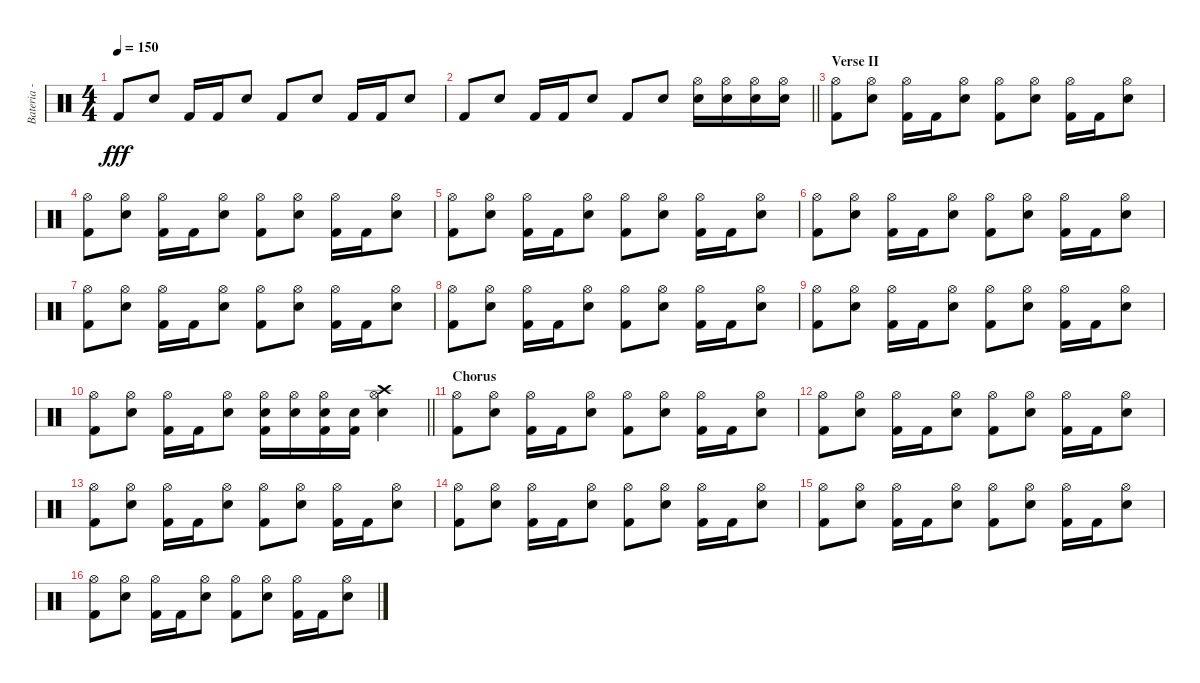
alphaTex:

\track ("Bateria - Larzon" "Bateria - ") {instrument percussion}
\staff {score}
\articulation defaults
\ts (4 4)
\tempo 150
\clef neutral
\ks c "Kick (hit) 2".8{dy fff} "Snare (hit) 2".8 "Kick (hit) 2".16 "Kick (hit) 2".16 "Snare (hit) 2".8 "Kick (hit) 2".8 "Snare (hit) 2".8 "Kick (hit) 2".16 "Kick (hit) 2".16 "Snare (hit) 2".8
|
\barLineRight lightlight "Kick (hit) 2".8 "Snare (hit) 2".8 "Kick (hit) 2".16 "Kick (hit) 2".16 "Snare (hit) 2".8 "Kick (hit) 2".8 "Snare (hit) 2".8
("Hi-Hat (open)" "Snare (hit) 2").16 ("Hi-Hat (open)" "Snare (hit) 2").16 ("Hi-Hat (open)" "Snare (hit) 2").16 ("Hi-Hat (open)" "Snare (hit) 2").16 |
\section ("" "Verse II")
("Kick (hit) 2" "Hi-Hat (open)").8 ("Hi-Hat (open)" "Snare (hit) 2").8 ("Kick (hit) 2" "Hi-Hat (open)").16 "Kick (hit) 2".16 ("Hi-Hat (open)" "Snare (hit) 2").8 ("Kick (hit) 2" "Hi-Hat (open)").8 ("Hi-Hat (open)" "Snare (hit) 2").8 ("Kick (hit) 2" "Hi-Hat (open)").16 "Kick (hit) 2".16 ("Hi-Hat (open)" "Snare (hit) 2").8 |
("Kick (hit) 2" "Hi-Hat (open)").8 ("Hi-Hat (open)" "Snare (hit) 2").8 ("Kick (hit) 2" "Hi-Hat (open)").16 "Kick (hit) 2".16 ("Hi-Hat (open)" "Snare (hit) 2").8 ("Kick (hit) 2" "Hi-Hat (open)").8 ("Hi-Hat (open)" "Snare (hit) 2").8 ("Kick (hit) 2" "Hi-Hat (open)").16 "Kick (hit) 2".16 ("Hi-Hat (open)" "Snare (hit) 2").8 |
("Kick (hit) 2" "Hi-Hat (open)").8 ("Hi-Hat (open)" "Snare (hit) 2").8 ("Kick (hit) 2" "Hi-Hat (open)").16 "Kick (hit) 2".16 ("Hi-Hat (open)" "Snare (hit) 2").8 ("Kick (hit) 2" "Hi-Hat (open)").8 ("Hi-Hat (open)" "Snare (hit) 2").8 ("Kick (hit) 2" "Hi-Hat (open)").16 "Kick (hit) 2".16 ("Hi-Hat (open)" "Snare (hit) 2").8 |
("Kick (hit) 2" "Hi-Hat (open)").8 ("Hi-Hat (open)" "Snare (hit) 2").8 ("Kick (hit) 2" "Hi-Hat (open)").16 "Kick (hit) 2".16 ("Hi-Hat (open)" "Snare (hit) 2").8 ("Kick (hit) 2" "Hi-Hat (open)").8 ("Hi-Hat (open)" "Snare (hit) 2").8 ("Kick (hit) 2" "Hi-Hat (open)").16 "Kick (hit) 2".16 ("Hi-Hat (open)" "Snare (hit) 2").8 |
("Kick (hit) 2" "Hi-Hat (open)").8 ("Hi-Hat (open)" "Snare (hit) 2").8 ("Kick (hit) 2" "Hi-Hat (open)").16 "Kick (hit) 2".16 ("Hi-Hat (open)" "Snare (hit) 2").8 ("Kick (hit) 2" "Hi-Hat (open)").8 ("Hi-Hat (open)" "Snare (hit) 2").8 ("Kick (hit) 2" "Hi-Hat (open)").16 "Kick (hit) 2".16 ("Hi-Hat (open)" "Snare (hit) 2").8 |
("Kick (hit) 2" "Hi-Hat (open)").8 ("Hi-Hat (open)" "Snare (hit) 2").8 ("Kick (hit) 2" "Hi-Hat (open)").16 "Kick (hit) 2".16 ("Hi-Hat (open)" "Snare (hit) 2").8 ("Kick (hit) 2" "Hi-Hat (open)").8 ("Hi-Hat (open)" "Snare (hit) 2").8 ("Kick (hit) 2" "Hi-Hat (open)").16 "Kick (hit) 2".16 ("Hi-Hat (open)" "Snare (hit) 2").8 |
("Kick (hit) 2" "Hi-Hat (open)").8 ("Hi-Hat (open)" "Snare (hit) 2").8 ("Kick (hit) 2" "Hi-Hat (open)").16 "Kick (hit) 2".16 ("Hi-Hat (open)" "Snare (hit) 2").8 ("Kick (hit) 2" "Hi-Hat (open)").8 ("Hi-Hat (open)" "Snare (hit) 2").8 ("Kick (hit) 2" "Hi-Hat (open)").16 "Kick (hit) 2".16 ("Hi-Hat (open)" "Snare (hit) 2").8 |
\barLineRight lightlight
("Kick (hit) 2" "Hi-Hat (open)").8 ("Hi-Hat (open)" "Snare (hit) 2").8 ("Kick (hit) 2" "Hi-Hat (open)").16 "Kick (hit) 2".16 ("Hi-Hat (open)" "Snare (hit) 2").8 ("Kick (hit) 2" "Hi-Hat (open)" "Snare (hit) 2").16 ("Hi-Hat (open)" "Snare (hit) 2").16 ("Kick (hit) 2" "Hi-Hat (open)" "Snare (hit) 2").16 ("Kick (hit) 2" "Snare (hit) 2").16 ("Crash high (hit)" "Hi-Hat (open)" "Snare (hit) 2").4 |
\section ("" "Chorus")
("Kick (hit) 2" "Hi-Hat (open)").8 ("Hi-Hat (open)" "Snare (hit) 2").8 ("Kick (hit) 2" "Hi-Hat (open)").16 "Kick (hit) 2".16 ("Hi-Hat (open)" "Snare (hit) 2").8 ("Kick (hit) 2" "Hi-Hat (open)").8 ("Hi-Hat (open)" "Snare (hit) 2").8 ("Kick (hit) 2" "Hi-Hat (open)").16 "Kick (hit) 2".16 ("Hi-Hat (open)" "Snare (hit) 2").8 |
("Kick (hit) 2" "Hi-Hat (open)").8 ("Hi-Hat (open)" "Snare (hit) 2").8 ("Kick (hit) 2" "Hi-Hat (open)").16 "Kick (hit) 2".16 ("Hi-Hat (open)" "Snare (hit) 2").8 ("Kick (hit) 2" "Hi-Hat (open)").8 ("Hi-Hat (open)" "Snare (hit) 2").8 ("Kick (hit) 2" "Hi-Hat (open)").16 "Kick (hit) 2".16 ("Hi-Hat (open)" "Snare (hit) 2").8 |
("Kick (hit) 2" "Hi-Hat (open)").8 ("Hi-Hat (open)" "Snare (hit) 2").8 ("Kick (hit) 2" "Hi-Hat (open)").16 "Kick (hit) 2".16 ("Hi-Hat (open)" "Snare (hit) 2").8 ("Kick (hit) 2" "Hi-Hat (open)").8 ("Hi-Hat (open)" "Snare (hit) 2").8 ("Kick (hit) 2" "Hi-Hat (open)").16 "Kick (hit) 2".16 ("Hi-Hat (open)" "Snare (hit) 2").8 |
("Kick (hit) 2" "Hi-Hat (open)").8 ("Hi-Hat (open)" "Snare (hit) 2").8 ("Kick (hit) 2" "Hi-Hat (open)").16 "Kick (hit) 2".16 ("Hi-Hat (open)" "Snare (hit) 2").8 ("Kick (hit) 2" "Hi-Hat (open)").8 ("Hi-Hat (open)" "Snare (hit) 2").8 ("Kick (hit) 2" "Hi-Hat (open)").16 "Kick (hit) 2".16 ("Hi-Hat (open)" "Snare (hit) 2").8 |
("Kick (hit) 2" "Hi-Hat (open)").8 ("Hi-Hat (open)" "Snare (hit) 2").8 ("Kick (hit) 2" "Hi-Hat (open)").16 "Kick (hit) 2".16 ("Hi-Hat (open)" "Snare (hit) 2").8 ("Kick (hit) 2" "Hi-Hat (open)").8 ("Hi-Hat (open)" "Snare (hit) 2").8 ("Kick (hit) 2" "Hi-Hat (open)").16 "Kick (hit) 2".16 ("Hi-Hat (open)" "Snare (hit) 2").8 |
("Kick (hit) 2" "Hi-Hat (open)").8 ("Hi-Hat (open)" "Snare (hit) 2").8 ("Kick (hit) 2" "Hi-Hat (open)").16 "Kick (hit) 2".16 ("Hi-Hat (open)" "Snare (hit) 2").8 ("Kick (hit) 2" "Hi-Hat (open)").8 ("Hi-Hat (open)" "Snare (hit) 2").8 ("Kick (hit) 2" "Hi-Hat (open)").16 "Kick (hit) 2".16 ("Hi-Hat (open)" "Snare (hit) 2").8
